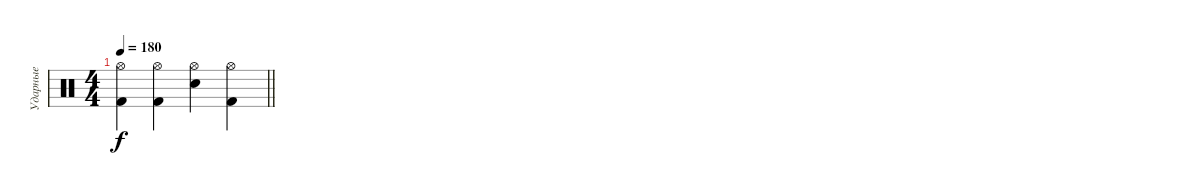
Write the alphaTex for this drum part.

\track ("Ударные" "Ударные") {instrument percussion}
\staff {score}
\articulation defaults
\ts (4 4)
\tempo 180
\clef neutral
\barLineRight lightlight
\ks c
("Hi-Hat (open)" "Kick (hit) 2").4{dy f} ("Hi-Hat (open)" "Kick (hit) 2").4 ("Electric Snare (hit)" "Hi-Hat (open)").4 ("Hi-Hat (open)" "Kick (hit) 2").4
